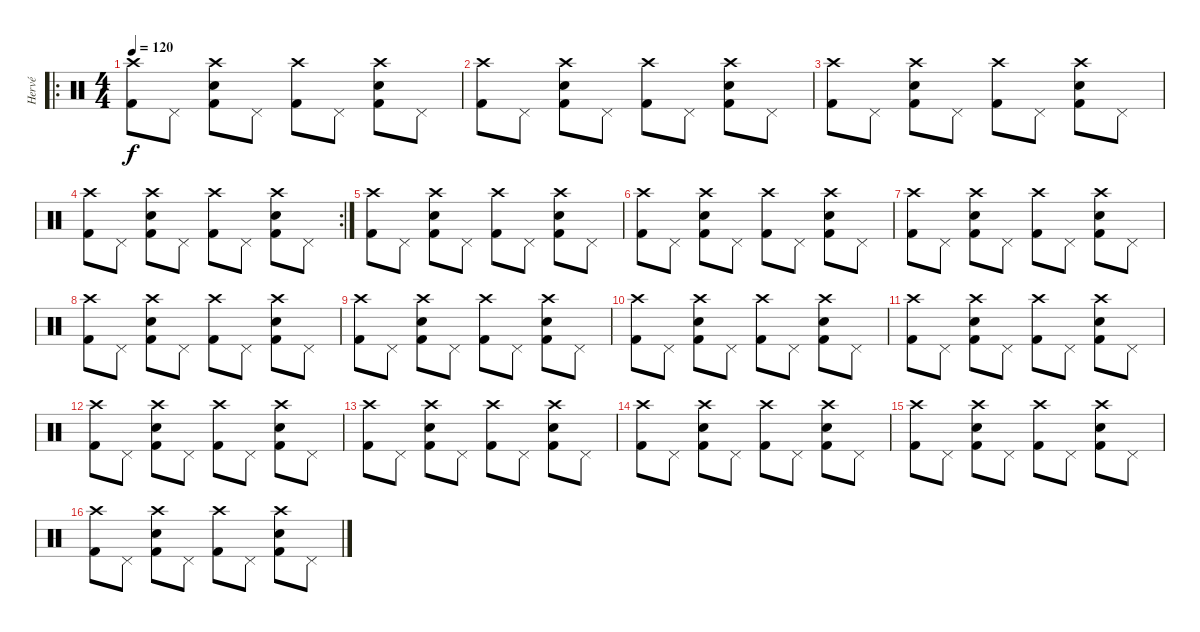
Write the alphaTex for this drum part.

\track ("Hervé" "Hervé") {instrument percussion}
\staff {score}
\articulation defaults
\ro
\ts (4 4)
\tempo 120
\clef neutral
\ks c
("Crash high (hit)" "Kick (hit) 2").8{dy f} "Pedal Hi-Hat (hit)".8 ("Crash high (hit)" "Electric Snare (hit)" "Kick (hit) 2").8 "Pedal Hi-Hat (hit)".8 ("Crash high (hit)" "Kick (hit) 2").8 "Pedal Hi-Hat (hit)".8 ("Crash high (hit)" "Electric Snare (hit)" "Kick (hit) 2").8 "Pedal Hi-Hat (hit)".8 |
("Crash high (hit)" "Kick (hit) 2").8 "Pedal Hi-Hat (hit)".8 ("Crash high (hit)" "Electric Snare (hit)" "Kick (hit) 2").8 "Pedal Hi-Hat (hit)".8 ("Crash high (hit)" "Kick (hit) 2").8 "Pedal Hi-Hat (hit)".8 ("Crash high (hit)" "Electric Snare (hit)" "Kick (hit) 2").8 "Pedal Hi-Hat (hit)".8 |
("Crash high (hit)" "Kick (hit) 2").8 "Pedal Hi-Hat (hit)".8 ("Crash high (hit)" "Electric Snare (hit)" "Kick (hit) 2").8 "Pedal Hi-Hat (hit)".8 ("Crash high (hit)" "Kick (hit) 2").8 "Pedal Hi-Hat (hit)".8 ("Crash high (hit)" "Electric Snare (hit)" "Kick (hit) 2").8 "Pedal Hi-Hat (hit)".8 |
\rc 2
("Crash high (hit)" "Kick (hit) 2").8 "Pedal Hi-Hat (hit)".8 ("Crash high (hit)" "Electric Snare (hit)" "Kick (hit) 2").8 "Pedal Hi-Hat (hit)".8 ("Crash high (hit)" "Kick (hit) 2").8 "Pedal Hi-Hat (hit)".8 ("Crash high (hit)" "Electric Snare (hit)" "Kick (hit) 2").8 "Pedal Hi-Hat (hit)".8 |
("Crash high (hit)" "Kick (hit) 2").8 "Pedal Hi-Hat (hit)".8 ("Crash high (hit)" "Electric Snare (hit)" "Kick (hit) 2").8 "Pedal Hi-Hat (hit)".8 ("Crash high (hit)" "Kick (hit) 2").8 "Pedal Hi-Hat (hit)".8 ("Crash high (hit)" "Electric Snare (hit)" "Kick (hit) 2").8 "Pedal Hi-Hat (hit)".8 |
("Crash high (hit)" "Kick (hit) 2").8 "Pedal Hi-Hat (hit)".8 ("Crash high (hit)" "Electric Snare (hit)" "Kick (hit) 2").8 "Pedal Hi-Hat (hit)".8 ("Crash high (hit)" "Kick (hit) 2").8 "Pedal Hi-Hat (hit)".8 ("Crash high (hit)" "Electric Snare (hit)" "Kick (hit) 2").8 "Pedal Hi-Hat (hit)".8 |
("Crash high (hit)" "Kick (hit) 2").8 "Pedal Hi-Hat (hit)".8 ("Crash high (hit)" "Electric Snare (hit)" "Kick (hit) 2").8 "Pedal Hi-Hat (hit)".8 ("Crash high (hit)" "Kick (hit) 2").8 "Pedal Hi-Hat (hit)".8 ("Crash high (hit)" "Electric Snare (hit)" "Kick (hit) 2").8 "Pedal Hi-Hat (hit)".8 |
("Crash high (hit)" "Kick (hit) 2").8 "Pedal Hi-Hat (hit)".8 ("Crash high (hit)" "Electric Snare (hit)" "Kick (hit) 2").8 "Pedal Hi-Hat (hit)".8 ("Crash high (hit)" "Kick (hit) 2").8 "Pedal Hi-Hat (hit)".8 ("Crash high (hit)" "Electric Snare (hit)" "Kick (hit) 2").8 "Pedal Hi-Hat (hit)".8 |
("Crash high (hit)" "Kick (hit) 2").8 "Pedal Hi-Hat (hit)".8 ("Crash high (hit)" "Electric Snare (hit)" "Kick (hit) 2").8 "Pedal Hi-Hat (hit)".8 ("Crash high (hit)" "Kick (hit) 2").8 "Pedal Hi-Hat (hit)".8 ("Crash high (hit)" "Electric Snare (hit)" "Kick (hit) 2").8 "Pedal Hi-Hat (hit)".8 |
("Crash high (hit)" "Kick (hit) 2").8 "Pedal Hi-Hat (hit)".8 ("Crash high (hit)" "Electric Snare (hit)" "Kick (hit) 2").8 "Pedal Hi-Hat (hit)".8 ("Crash high (hit)" "Kick (hit) 2").8 "Pedal Hi-Hat (hit)".8 ("Crash high (hit)" "Electric Snare (hit)" "Kick (hit) 2").8 "Pedal Hi-Hat (hit)".8 |
("Crash high (hit)" "Kick (hit) 2").8 "Pedal Hi-Hat (hit)".8 ("Crash high (hit)" "Electric Snare (hit)" "Kick (hit) 2").8 "Pedal Hi-Hat (hit)".8 ("Crash high (hit)" "Kick (hit) 2").8 "Pedal Hi-Hat (hit)".8 ("Crash high (hit)" "Electric Snare (hit)" "Kick (hit) 2").8 "Pedal Hi-Hat (hit)".8 |
("Crash high (hit)" "Kick (hit) 2").8 "Pedal Hi-Hat (hit)".8 ("Crash high (hit)" "Electric Snare (hit)" "Kick (hit) 2").8 "Pedal Hi-Hat (hit)".8 ("Crash high (hit)" "Kick (hit) 2").8 "Pedal Hi-Hat (hit)".8 ("Crash high (hit)" "Electric Snare (hit)" "Kick (hit) 2").8 "Pedal Hi-Hat (hit)".8 |
("Crash high (hit)" "Kick (hit) 2").8 "Pedal Hi-Hat (hit)".8 ("Crash high (hit)" "Electric Snare (hit)" "Kick (hit) 2").8 "Pedal Hi-Hat (hit)".8 ("Crash high (hit)" "Kick (hit) 2").8 "Pedal Hi-Hat (hit)".8 ("Crash high (hit)" "Electric Snare (hit)" "Kick (hit) 2").8 "Pedal Hi-Hat (hit)".8 |
("Crash high (hit)" "Kick (hit) 2").8 "Pedal Hi-Hat (hit)".8 ("Crash high (hit)" "Electric Snare (hit)" "Kick (hit) 2").8 "Pedal Hi-Hat (hit)".8 ("Crash high (hit)" "Kick (hit) 2").8 "Pedal Hi-Hat (hit)".8 ("Crash high (hit)" "Electric Snare (hit)" "Kick (hit) 2").8 "Pedal Hi-Hat (hit)".8 |
("Crash high (hit)" "Kick (hit) 2").8 "Pedal Hi-Hat (hit)".8 ("Crash high (hit)" "Electric Snare (hit)" "Kick (hit) 2").8 "Pedal Hi-Hat (hit)".8 ("Crash high (hit)" "Kick (hit) 2").8 "Pedal Hi-Hat (hit)".8 ("Crash high (hit)" "Electric Snare (hit)" "Kick (hit) 2").8 "Pedal Hi-Hat (hit)".8 |
("Crash high (hit)" "Kick (hit) 2").8 "Pedal Hi-Hat (hit)".8 ("Crash high (hit)" "Electric Snare (hit)" "Kick (hit) 2").8 "Pedal Hi-Hat (hit)".8 ("Crash high (hit)" "Kick (hit) 2").8 "Pedal Hi-Hat (hit)".8 ("Crash high (hit)" "Electric Snare (hit)" "Kick (hit) 2").8 "Pedal Hi-Hat (hit)".8
